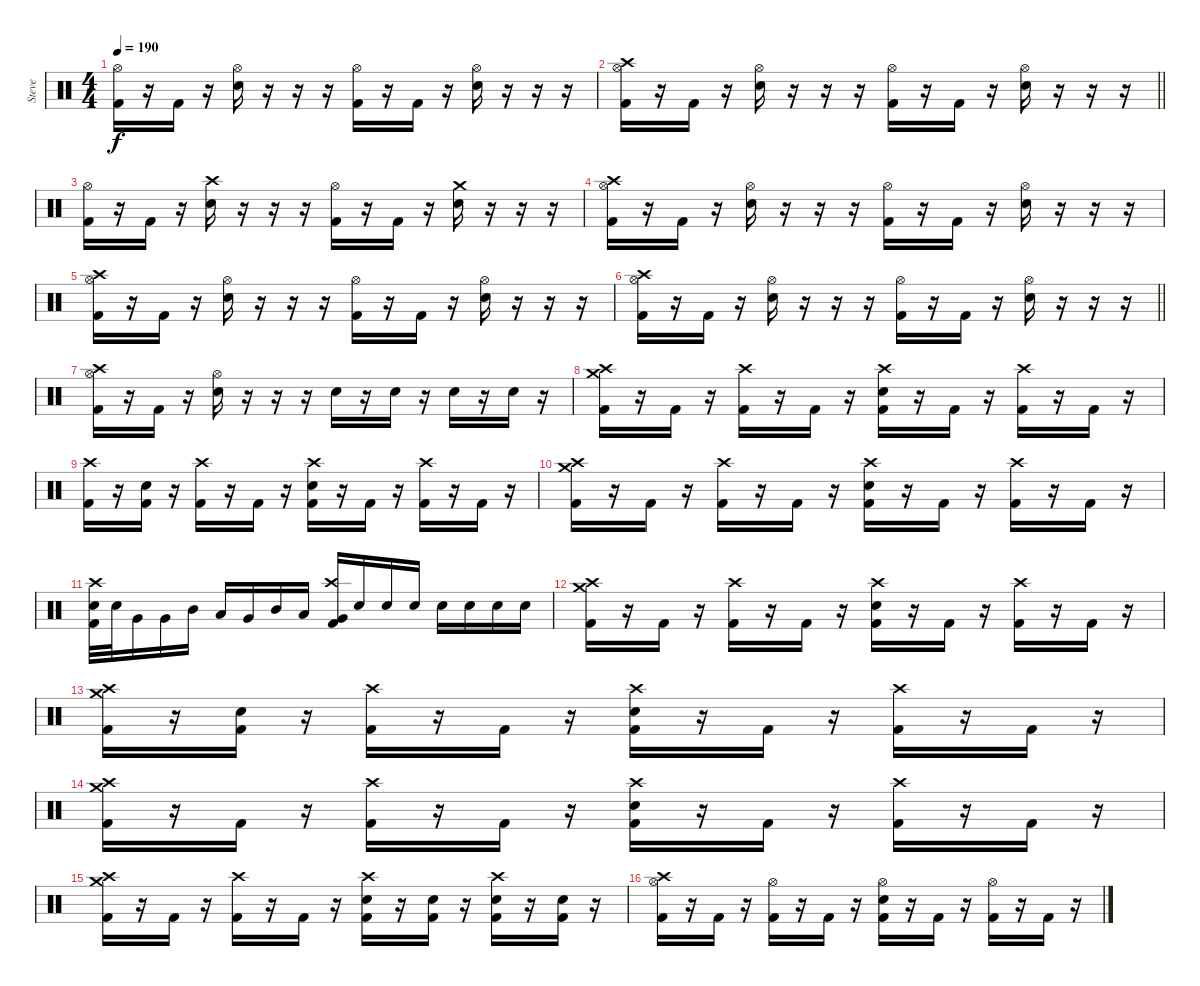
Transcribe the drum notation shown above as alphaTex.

\track ("Steve" "Steve") {instrument percussion}
\staff {score}
\articulation defaults
\ts (4 4)
\tempo 190
\clef neutral
\ks c
("Hi-Hat (open)" "Kick (hit) 2").16{dy f} r.16 "Kick (hit) 2".16 r.16 ("Hi-Hat (open)" "Snare (hit) 2").16 r.16 r.16 r.16 ("Hi-Hat (open)" "Kick (hit) 2").16 r.16 "Kick (hit) 2".16 r.16 ("Hi-Hat (open)" "Snare (hit) 2").16 r.16 r.16 r.16 |
\barLineRight lightlight
("Hi-Hat (open)" "Crash high (hit)" "Kick (hit) 2").16 r.16 "Kick (hit) 2".16 r.16 ("Hi-Hat (open)" "Snare (hit) 2").16 r.16 r.16 r.16 ("Hi-Hat (open)" "Kick (hit) 2").16 r.16 "Kick (hit) 2".16 r.16 ("Hi-Hat (open)" "Snare (hit) 2").16 r.16 r.16 r.16 |
("Hi-Hat (open)" "Kick (hit) 2").16 r.16 "Kick (hit) 2".16 r.16 ("Crash high (hit)" "Snare (hit) 2").16 r.16 r.16 r.16 ("Hi-Hat (open)" "Kick (hit) 2").16 r.16 "Kick (hit) 2".16 r.16 ("Crash medium (hit)" "Snare (hit) 2").16 r.16 r.16 r.16 |
("Hi-Hat (open)" "Crash high (hit)" "Kick (hit) 2").16 r.16 "Kick (hit) 2".16 r.16 ("Hi-Hat (open)" "Snare (hit) 2").16 r.16 r.16 r.16 ("Hi-Hat (open)" "Kick (hit) 2").16 r.16 "Kick (hit) 2".16 r.16 ("Hi-Hat (open)" "Snare (hit) 2").16 r.16 r.16 r.16 |
("Hi-Hat (open)" "Crash high (hit)" "Kick (hit) 2").16 r.16 "Kick (hit) 2".16 r.16 ("Hi-Hat (open)" "Snare (hit) 2").16 r.16 r.16 r.16 ("Hi-Hat (open)" "Kick (hit) 2").16 r.16 "Kick (hit) 2".16 r.16 ("Hi-Hat (open)" "Snare (hit) 2").16 r.16 r.16 r.16 |
\barLineRight lightlight
("Hi-Hat (open)" "Crash high (hit)" "Kick (hit) 2").16 r.16 "Kick (hit) 2".16 r.16 ("Hi-Hat (open)" "Snare (hit) 2").16 r.16 r.16 r.16 ("Hi-Hat (open)" "Kick (hit) 2").16 r.16 "Kick (hit) 2".16 r.16 ("Hi-Hat (open)" "Snare (hit) 2").16 r.16 r.16 r.16 |
("Hi-Hat (open)" "Crash high (hit)" "Kick (hit) 2").16 r.16 "Kick (hit) 2".16 r.16 ("Hi-Hat (open)" "Snare (hit) 2").16 r.16 r.16 r.16 "Snare (hit) 2".16 r.16 "Snare (hit) 2".16 r.16 "Snare (hit) 2".16 r.16 "Snare (hit) 2".16 r.16 |
("Crash medium (hit)" "Crash high (hit)" "Kick (hit) 2").16 r.16 "Kick (hit) 2".16 r.16 ("Crash high (hit)" "Kick (hit) 2").16 r.16 "Kick (hit) 2".16 r.16 ("Crash high (hit)" "Snare (hit) 2" "Kick (hit) 2").16 r.16 "Kick (hit) 2".16 r.16 ("Crash high (hit)" "Kick (hit) 2").16 r.16 "Kick (hit) 2".16 r.16 |
("Crash high (hit)" "Kick (hit) 2").16 r.16 ("Snare (hit) 2" "Kick (hit) 2").16 r.16 ("Crash high (hit)" "Kick (hit) 2").16 r.16 "Kick (hit) 2".16 r.16 ("Crash high (hit)" "Snare (hit) 2" "Kick (hit) 2").16 r.16 "Kick (hit) 2".16 r.16 ("Crash high (hit)" "Kick (hit) 2").16 r.16 "Kick (hit) 2".16 r.16 |
("Crash medium (hit)" "Crash high (hit)" "Kick (hit) 2").16 r.16 "Kick (hit) 2".16 r.16 ("Crash high (hit)" "Kick (hit) 2").16 r.16 "Kick (hit) 2".16 r.16 ("Crash high (hit)" "Snare (hit) 2" "Kick (hit) 2").16 r.16 "Kick (hit) 2".16 r.16 ("Crash high (hit)" "Kick (hit) 2").16 r.16 "Kick (hit) 2".16 r.16 |
("Snare (hit) 2" "Kick (hit) 2" "Crash high (hit)").32 "Snare (hit) 2".32 "Very Low Tom (hit)".16 "Very Low Tom (hit)".16 "Mid Tom (hit)".16 "Low Tom (hit)".16 "Very Low Tom (hit)".16 "Mid Tom (hit)".16 "Low Tom (hit)".16 ("Very Low Tom (hit)" "Crash high (hit)" "Kick (hit) 2").16 "Snare (hit) 2".16 "Snare (hit) 2".16 "Snare (hit) 2".16 "Snare (hit) 2".16 "Snare (hit) 2".16 "Snare (hit) 2".16 "Snare (hit) 2".16 |
("Crash medium (hit)" "Crash high (hit)" "Kick (hit) 2").16 r.16 "Kick (hit) 2".16 r.16 ("Crash high (hit)" "Kick (hit) 2").16 r.16 "Kick (hit) 2".16 r.16 ("Crash high (hit)" "Snare (hit) 2" "Kick (hit) 2").16 r.16 "Kick (hit) 2".16 r.16 ("Crash high (hit)" "Kick (hit) 2").16 r.16 "Kick (hit) 2".16 r.16 |
("Crash medium (hit)" "Crash high (hit)" "Kick (hit) 2").16 r.16 ("Snare (hit) 2" "Kick (hit) 2").16 r.16 ("Crash high (hit)" "Kick (hit) 2").16 r.16 "Kick (hit) 2".16 r.16 ("Crash high (hit)" "Snare (hit) 2" "Kick (hit) 2").16 r.16 "Kick (hit) 2".16 r.16 ("Crash high (hit)" "Kick (hit) 2").16 r.16 "Kick (hit) 2".16 r.16 |
("Crash medium (hit)" "Crash high (hit)" "Kick (hit) 2").16 r.16 "Kick (hit) 2".16 r.16 ("Crash high (hit)" "Kick (hit) 2").16 r.16 "Kick (hit) 2".16 r.16 ("Crash high (hit)" "Snare (hit) 2" "Kick (hit) 2").16 r.16 "Kick (hit) 2".16 r.16 ("Crash high (hit)" "Kick (hit) 2").16 r.16 "Kick (hit) 2".16 r.16 |
("Crash medium (hit)" "Crash high (hit)" "Kick (hit) 2").16 r.16 "Kick (hit) 2".16 r.16 ("Crash high (hit)" "Kick (hit) 2").16 r.16 "Kick (hit) 2".16 r.16 ("Crash high (hit)" "Snare (hit) 2" "Kick (hit) 2").16 r.16 ("Snare (hit) 2" "Kick (hit) 2").16 r.16 ("Crash high (hit)" "Snare (hit) 2" "Kick (hit) 2").16 r.16 ("Snare (hit) 2" "Kick (hit) 2").16 r.16 |
("Hi-Hat (open)" "Crash high (hit)" "Kick (hit) 2").16 r.16 "Kick (hit) 2".16 r.16 ("Hi-Hat (open)" "Kick (hit) 2").16 r.16 "Kick (hit) 2".16 r.16 ("Hi-Hat (open)" "Snare (hit) 2" "Kick (hit) 2").16 r.16 "Kick (hit) 2".16 r.16 ("Hi-Hat (open)" "Kick (hit) 2").16 r.16 "Kick (hit) 2".16 r.16
